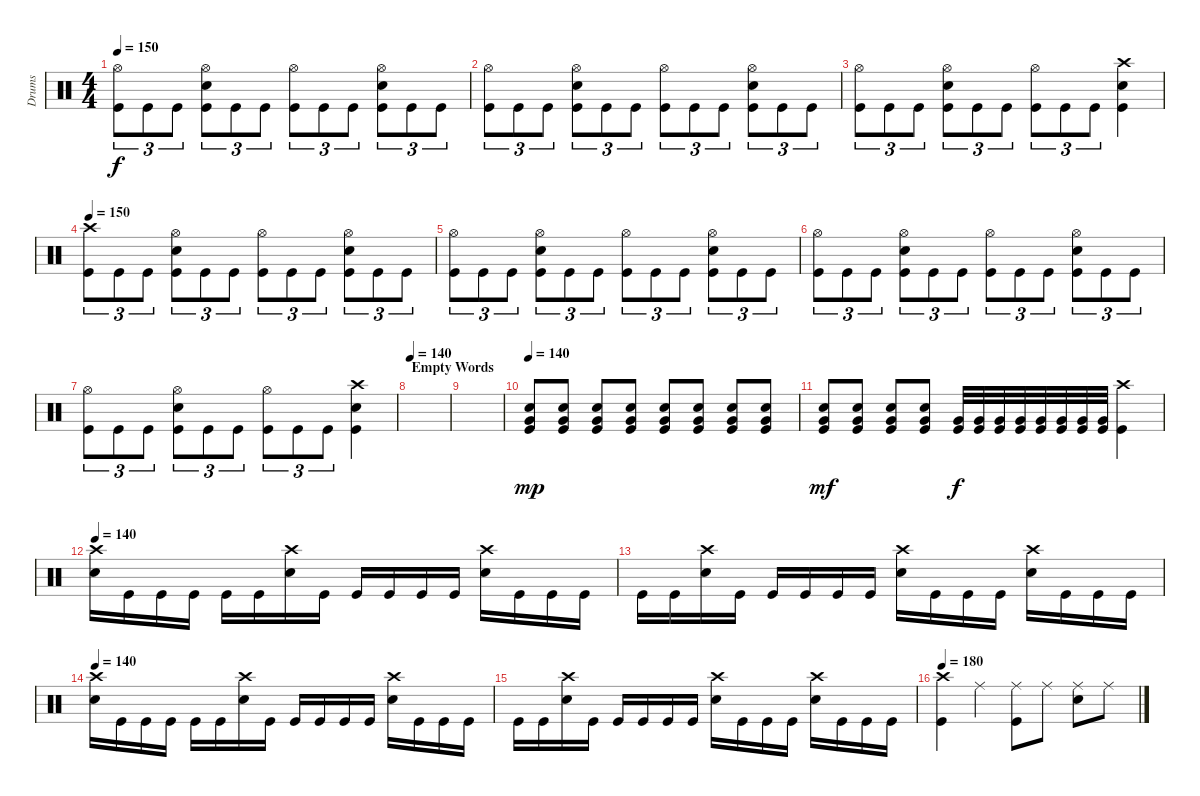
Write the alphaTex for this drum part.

\track ("Drums" "Drums") {instrument percussion}
\staff {score}
\articulation defaults
\ts (4 4)
\tempo 150
\clef neutral
\ks c
("Hi-Hat (open)" "Kick (hit)").8{tu (3 2) dy f} "Kick (hit)".8{tu (3 2)} "Kick (hit)".8{tu (3 2)} ("Hi-Hat (open)" "Snare (hit) 2" "Kick (hit)").8{tu (3 2)} "Kick (hit)".8{tu (3 2)} "Kick (hit)".8{tu (3 2)} ("Hi-Hat (open)" "Kick (hit)").8{tu (3 2)} "Kick (hit)".8{tu (3 2)} "Kick (hit)".8{tu (3 2)} ("Hi-Hat (open)" "Snare (hit) 2" "Kick (hit)").8{tu (3 2)} "Kick (hit)".8{tu (3 2)} "Kick (hit)".8{tu (3 2)} |
("Hi-Hat (open)" "Kick (hit)").8{tu (3 2)} "Kick (hit)".8{tu (3 2)} "Kick (hit)".8{tu (3 2)} ("Hi-Hat (open)" "Snare (hit) 2" "Kick (hit)").8{tu (3 2)} "Kick (hit)".8{tu (3 2)} "Kick (hit)".8{tu (3 2)} ("Hi-Hat (open)" "Kick (hit)").8{tu (3 2)} "Kick (hit)".8{tu (3 2)} "Kick (hit)".8{tu (3 2)} ("Hi-Hat (open)" "Snare (hit) 2" "Kick (hit)").8{tu (3 2)} "Kick (hit)".8{tu (3 2)} "Kick (hit)".8{tu (3 2)} |
("Hi-Hat (open)" "Kick (hit)").8{tu (3 2)} "Kick (hit)".8{tu (3 2)} "Kick (hit)".8{tu (3 2)} ("Hi-Hat (open)" "Snare (hit) 2" "Kick (hit)").8{tu (3 2)} "Kick (hit)".8{tu (3 2)} "Kick (hit)".8{tu (3 2)} ("Hi-Hat (open)" "Kick (hit)").8{tu (3 2)} "Kick (hit)".8{tu (3 2)} "Kick (hit)".8{tu (3 2)} ("Crash high (hit)" "Snare (hit) 2" "Kick (hit)").4 |
\tempo 150
("Crash high (hit)" "Kick (hit)").8{tu (3 2)} "Kick (hit)".8{tu (3 2)} "Kick (hit)".8{tu (3 2)} ("Hi-Hat (open)" "Snare (hit) 2" "Kick (hit)").8{tu (3 2)} "Kick (hit)".8{tu (3 2)} "Kick (hit)".8{tu (3 2)} ("Hi-Hat (open)" "Kick (hit)").8{tu (3 2)} "Kick (hit)".8{tu (3 2)} "Kick (hit)".8{tu (3 2)} ("Hi-Hat (open)" "Snare (hit) 2" "Kick (hit)").8{tu (3 2)} "Kick (hit)".8{tu (3 2)} "Kick (hit)".8{tu (3 2)} |
("Hi-Hat (open)" "Kick (hit)").8{tu (3 2)} "Kick (hit)".8{tu (3 2)} "Kick (hit)".8{tu (3 2)} ("Hi-Hat (open)" "Snare (hit) 2" "Kick (hit)").8{tu (3 2)} "Kick (hit)".8{tu (3 2)} "Kick (hit)".8{tu (3 2)} ("Hi-Hat (open)" "Kick (hit)").8{tu (3 2)} "Kick (hit)".8{tu (3 2)} "Kick (hit)".8{tu (3 2)} ("Hi-Hat (open)" "Snare (hit) 2" "Kick (hit)").8{tu (3 2)} "Kick (hit)".8{tu (3 2)} "Kick (hit)".8{tu (3 2)} |
("Hi-Hat (open)" "Kick (hit)").8{tu (3 2)} "Kick (hit)".8{tu (3 2)} "Kick (hit)".8{tu (3 2)} ("Hi-Hat (open)" "Snare (hit) 2" "Kick (hit)").8{tu (3 2)} "Kick (hit)".8{tu (3 2)} "Kick (hit)".8{tu (3 2)} ("Hi-Hat (open)" "Kick (hit)").8{tu (3 2)} "Kick (hit)".8{tu (3 2)} "Kick (hit)".8{tu (3 2)} ("Hi-Hat (open)" "Snare (hit) 2" "Kick (hit)").8{tu (3 2)} "Kick (hit)".8{tu (3 2)} "Kick (hit)".8{tu (3 2)} |
("Hi-Hat (open)" "Kick (hit)").8{tu (3 2)} "Kick (hit)".8{tu (3 2)} "Kick (hit)".8{tu (3 2)} ("Hi-Hat (open)" "Snare (hit) 2" "Kick (hit)").8{tu (3 2)} "Kick (hit)".8{tu (3 2)} "Kick (hit)".8{tu (3 2)} ("Hi-Hat (open)" "Kick (hit)").8{tu (3 2)} "Kick (hit)".8{tu (3 2)} "Kick (hit)".8{tu (3 2)} ("Crash high (hit)" "Snare (hit) 2" "Kick (hit)").4 |
\section ("" "Empty Words")
\tempo 140
|
|
\tempo 140
("Very Low Tom (hit)" "Snare (hit) 2" "Kick (hit)").8{dy mp} ("Very Low Tom (hit)" "Snare (hit) 2" "Kick (hit)").8 ("Very Low Tom (hit)" "Snare (hit) 2" "Kick (hit)").8 ("Very Low Tom (hit)" "Snare (hit) 2" "Kick (hit)").8 ("Very Low Tom (hit)" "Snare (hit) 2" "Kick (hit)").8 ("Very Low Tom (hit)" "Snare (hit) 2" "Kick (hit)").8 ("Very Low Tom (hit)" "Snare (hit) 2" "Kick (hit)").8 ("Very Low Tom (hit)" "Snare (hit) 2" "Kick (hit)").8 |
("Very Low Tom (hit)" "Snare (hit) 2" "Kick (hit)").8{dy mf} ("Very Low Tom (hit)" "Snare (hit) 2" "Kick (hit)").8 ("Very Low Tom (hit)" "Snare (hit) 2" "Kick (hit)").8 ("Very Low Tom (hit)" "Snare (hit) 2" "Kick (hit)").8 ("Very Low Tom (hit)" "Kick (hit)").32{dy f} ("Very Low Tom (hit)" "Kick (hit)").32 ("Very Low Tom (hit)" "Kick (hit)").32 ("Very Low Tom (hit)" "Kick (hit)").32 ("Very Low Tom (hit)" "Kick (hit)").32 ("Very Low Tom (hit)" "Kick (hit)").32 ("Very Low Tom (hit)" "Kick (hit)").32 ("Very Low Tom (hit)" "Kick (hit)").32 ("Crash high (hit)" "Kick (hit)").4 |
\tempo 140
("Crash high (hit)" "Snare (hit) 2").16 "Kick (hit)".16 "Kick (hit)".16 "Kick (hit)".16 "Kick (hit)".16 "Kick (hit)".16 ("Crash high (hit)" "Snare (hit) 2").16 "Kick (hit)".16 "Kick (hit)".16 "Kick (hit)".16 "Kick (hit)".16 "Kick (hit)".16 ("Crash high (hit)" "Snare (hit) 2").16 "Kick (hit)".16 "Kick (hit)".16 "Kick (hit)".16 |
"Kick (hit)".16 "Kick (hit)".16 ("Crash high (hit)" "Snare (hit) 2").16 "Kick (hit)".16 "Kick (hit)".16 "Kick (hit)".16 "Kick (hit)".16 "Kick (hit)".16 ("Crash high (hit)" "Snare (hit) 2").16 "Kick (hit)".16 "Kick (hit)".16 "Kick (hit)".16 ("Crash high (hit)" "Snare (hit) 2").16 "Kick (hit)".16 "Kick (hit)".16 "Kick (hit)".16 |
\tempo 140
("Crash high (hit)" "Snare (hit) 2").16 "Kick (hit)".16 "Kick (hit)".16 "Kick (hit)".16 "Kick (hit)".16 "Kick (hit)".16 ("Crash high (hit)" "Snare (hit) 2").16 "Kick (hit)".16 "Kick (hit)".16 "Kick (hit)".16 "Kick (hit)".16 "Kick (hit)".16 ("Crash high (hit)" "Snare (hit) 2").16 "Kick (hit)".16 "Kick (hit)".16 "Kick (hit)".16 |
"Kick (hit)".16 "Kick (hit)".16 ("Crash high (hit)" "Snare (hit) 2").16 "Kick (hit)".16 "Kick (hit)".16 "Kick (hit)".16 "Kick (hit)".16 "Kick (hit)".16 ("Crash high (hit)" "Snare (hit) 2").16 "Kick (hit)".16 "Kick (hit)".16 "Kick (hit)".16 ("Crash high (hit)" "Snare (hit) 2").16 "Kick (hit)".16 "Kick (hit)".16 "Kick (hit)".16 |
\tempo 180
("Crash high (hit)" "Kick (hit)").4 "Ride (middle)".4 ("Ride (middle)" "Kick (hit)").8 "Ride (middle)".8 ("Ride (middle)" "Snare (hit) 2").8 "Ride (middle)".8
